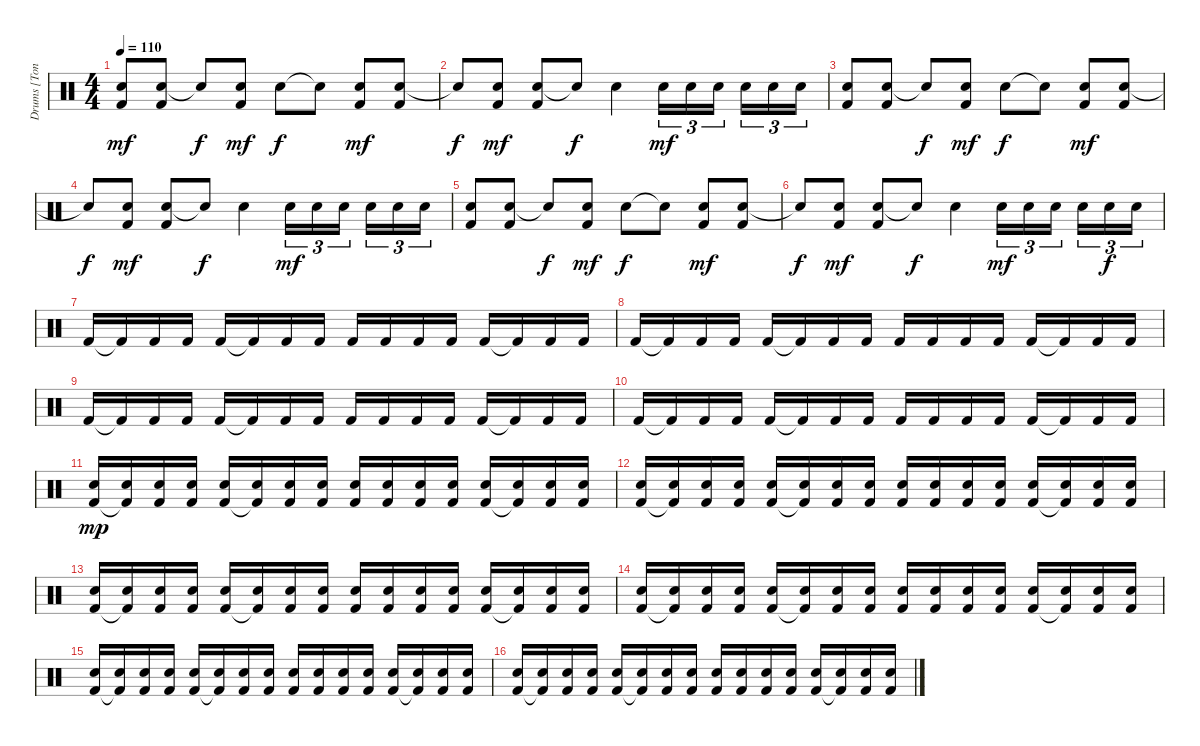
\track ("Drums [Tony Laureano]" "Drums [Ton") {instrument percussion}
\staff {score}
\articulation defaults
\ts (4 4)
\tempo 110
\clef neutral
\ks c
("Electric Snare (hit)" "Kick (hit) 2").8{dy mf} ("Electric Snare (hit)" "Kick (hit) 2").8 "Snare (hit)"{t}.8{dy f} ("Electric Snare (hit)" "Kick (hit) 2").8{dy mf} "Electric Snare (hit)".8{dy f} "Snare (hit)"{t}.8 ("Electric Snare (hit)" "Kick (hit) 2").8{dy mf} ("Electric Snare (hit)" "Kick (hit) 2").8 |
"Snare (hit)"{t}.8{dy f} ("Electric Snare (hit)" "Kick (hit) 2").8{dy mf} ("Electric Snare (hit)" "Kick (hit) 2").8 "Snare (hit)"{t}.8{dy f} "Electric Snare (hit)".4 "Electric Snare (hit)".16{tu (3 2) dy mf} "Electric Snare (hit)".16{tu (3 2)} "Electric Snare (hit)".16{tu (3 2)} "Electric Snare (hit)".16{tu (3 2)} "Electric Snare (hit)".16{tu (3 2)} "Electric Snare (hit)".16{tu (3 2)} |
("Electric Snare (hit)" "Kick (hit) 2").8 ("Electric Snare (hit)" "Kick (hit) 2").8 "Snare (hit)"{t}.8{dy f} ("Electric Snare (hit)" "Kick (hit) 2").8{dy mf} "Electric Snare (hit)".8{dy f} "Snare (hit)"{t}.8 ("Electric Snare (hit)" "Kick (hit) 2").8{dy mf} ("Electric Snare (hit)" "Kick (hit) 2").8 |
"Snare (hit)"{t}.8{dy f} ("Electric Snare (hit)" "Kick (hit) 2").8{dy mf} ("Electric Snare (hit)" "Kick (hit) 2").8 "Snare (hit)"{t}.8{dy f} "Electric Snare (hit)".4 "Electric Snare (hit)".16{tu (3 2) dy mf} "Electric Snare (hit)".16{tu (3 2)} "Electric Snare (hit)".16{tu (3 2)} "Electric Snare (hit)".16{tu (3 2)} "Electric Snare (hit)".16{tu (3 2)} "Electric Snare (hit)".16{tu (3 2)} |
("Electric Snare (hit)" "Kick (hit) 2").8 ("Electric Snare (hit)" "Kick (hit) 2").8 "Snare (hit)"{t}.8{dy f} ("Electric Snare (hit)" "Kick (hit) 2").8{dy mf} "Electric Snare (hit)".8{dy f} "Snare (hit)"{t}.8 ("Electric Snare (hit)" "Kick (hit) 2").8{dy mf} ("Electric Snare (hit)" "Kick (hit) 2").8 |
"Snare (hit)"{t}.8{dy f} ("Electric Snare (hit)" "Kick (hit) 2").8{dy mf} ("Electric Snare (hit)" "Kick (hit) 2").8 "Snare (hit)"{t}.8{dy f} "Electric Snare (hit)".4 "Electric Snare (hit)".16{tu (3 2) dy mf} "Electric Snare (hit)".16{tu (3 2)} "Electric Snare (hit)".16{tu (3 2)} "Electric Snare (hit)".16{tu (3 2)} "Electric Snare (hit)".16{tu (3 2) dy f} "Electric Snare (hit)".16{tu (3 2)} |
"Kick (hit) 2".16 "Kick (hit) 2"{t}.16 "Kick (hit) 2".16 "Kick (hit) 2".16 "Kick (hit) 2".16 "Kick (hit) 2"{t}.16 "Kick (hit) 2".16 "Kick (hit) 2".16 "Kick (hit) 2".16 "Kick (hit) 2".16 "Kick (hit) 2".16 "Kick (hit) 2".16 "Kick (hit) 2".16 "Kick (hit) 2"{t}.16 "Kick (hit) 2".16 "Kick (hit) 2".16 |
"Kick (hit) 2".16 "Kick (hit) 2"{t}.16 "Kick (hit) 2".16 "Kick (hit) 2".16 "Kick (hit) 2".16 "Kick (hit) 2"{t}.16 "Kick (hit) 2".16 "Kick (hit) 2".16 "Kick (hit) 2".16 "Kick (hit) 2".16 "Kick (hit) 2".16 "Kick (hit) 2".16 "Kick (hit) 2".16 "Kick (hit) 2"{t}.16 "Kick (hit) 2".16 "Kick (hit) 2".16 |
"Kick (hit) 2".16 "Kick (hit) 2"{t}.16 "Kick (hit) 2".16 "Kick (hit) 2".16 "Kick (hit) 2".16 "Kick (hit) 2"{t}.16 "Kick (hit) 2".16 "Kick (hit) 2".16 "Kick (hit) 2".16 "Kick (hit) 2".16 "Kick (hit) 2".16 "Kick (hit) 2".16 "Kick (hit) 2".16 "Kick (hit) 2"{t}.16 "Kick (hit) 2".16 "Kick (hit) 2".16 |
"Kick (hit) 2".16 "Kick (hit) 2"{t}.16 "Kick (hit) 2".16 "Kick (hit) 2".16 "Kick (hit) 2".16 "Kick (hit) 2"{t}.16 "Kick (hit) 2".16 "Kick (hit) 2".16 "Kick (hit) 2".16 "Kick (hit) 2".16 "Kick (hit) 2".16 "Kick (hit) 2".16 "Kick (hit) 2".16 "Kick (hit) 2"{t}.16 "Kick (hit) 2".16 "Kick (hit) 2".16 |
("Electric Snare (hit)" "Kick (hit) 2").16{dy mp} ("Electric Snare (hit)" "Kick (hit) 2"{t}).16 ("Electric Snare (hit)" "Kick (hit) 2").16 ("Electric Snare (hit)" "Kick (hit) 2").16 ("Electric Snare (hit)" "Kick (hit) 2").16 ("Electric Snare (hit)" "Kick (hit) 2"{t}).16 ("Electric Snare (hit)" "Kick (hit) 2").16 ("Electric Snare (hit)" "Kick (hit) 2").16 ("Electric Snare (hit)" "Kick (hit) 2").16 ("Electric Snare (hit)" "Kick (hit) 2").16 ("Electric Snare (hit)" "Kick (hit) 2").16 ("Electric Snare (hit)" "Kick (hit) 2").16 ("Electric Snare (hit)" "Kick (hit) 2").16 ("Electric Snare (hit)" "Kick (hit) 2"{t}).16 ("Electric Snare (hit)" "Kick (hit) 2").16 ("Electric Snare (hit)" "Kick (hit) 2").16 |
("Electric Snare (hit)" "Kick (hit) 2").16 ("Electric Snare (hit)" "Kick (hit) 2"{t}).16 ("Electric Snare (hit)" "Kick (hit) 2").16 ("Electric Snare (hit)" "Kick (hit) 2").16 ("Electric Snare (hit)" "Kick (hit) 2").16 ("Electric Snare (hit)" "Kick (hit) 2"{t}).16 ("Electric Snare (hit)" "Kick (hit) 2").16 ("Electric Snare (hit)" "Kick (hit) 2").16 ("Electric Snare (hit)" "Kick (hit) 2").16 ("Electric Snare (hit)" "Kick (hit) 2").16 ("Electric Snare (hit)" "Kick (hit) 2").16 ("Electric Snare (hit)" "Kick (hit) 2").16 ("Electric Snare (hit)" "Kick (hit) 2").16 ("Electric Snare (hit)" "Kick (hit) 2"{t}).16 ("Electric Snare (hit)" "Kick (hit) 2").16 ("Electric Snare (hit)" "Kick (hit) 2").16 |
("Electric Snare (hit)" "Kick (hit) 2").16 ("Electric Snare (hit)" "Kick (hit) 2"{t}).16 ("Electric Snare (hit)" "Kick (hit) 2").16 ("Electric Snare (hit)" "Kick (hit) 2").16 ("Electric Snare (hit)" "Kick (hit) 2").16 ("Electric Snare (hit)" "Kick (hit) 2"{t}).16 ("Electric Snare (hit)" "Kick (hit) 2").16 ("Electric Snare (hit)" "Kick (hit) 2").16 ("Electric Snare (hit)" "Kick (hit) 2").16 ("Electric Snare (hit)" "Kick (hit) 2").16 ("Electric Snare (hit)" "Kick (hit) 2").16 ("Electric Snare (hit)" "Kick (hit) 2").16 ("Electric Snare (hit)" "Kick (hit) 2").16 ("Electric Snare (hit)" "Kick (hit) 2"{t}).16 ("Electric Snare (hit)" "Kick (hit) 2").16 ("Electric Snare (hit)" "Kick (hit) 2").16 |
("Electric Snare (hit)" "Kick (hit) 2").16 ("Electric Snare (hit)" "Kick (hit) 2"{t}).16 ("Electric Snare (hit)" "Kick (hit) 2").16 ("Electric Snare (hit)" "Kick (hit) 2").16 ("Electric Snare (hit)" "Kick (hit) 2").16 ("Electric Snare (hit)" "Kick (hit) 2"{t}).16 ("Electric Snare (hit)" "Kick (hit) 2").16 ("Electric Snare (hit)" "Kick (hit) 2").16 ("Electric Snare (hit)" "Kick (hit) 2").16 ("Electric Snare (hit)" "Kick (hit) 2").16 ("Electric Snare (hit)" "Kick (hit) 2").16 ("Electric Snare (hit)" "Kick (hit) 2").16 ("Electric Snare (hit)" "Kick (hit) 2").16 ("Electric Snare (hit)" "Kick (hit) 2"{t}).16 ("Electric Snare (hit)" "Kick (hit) 2").16 ("Electric Snare (hit)" "Kick (hit) 2").16 |
("Electric Snare (hit)" "Kick (hit) 2").16 ("Electric Snare (hit)" "Kick (hit) 2"{t}).16 ("Electric Snare (hit)" "Kick (hit) 2").16 ("Electric Snare (hit)" "Kick (hit) 2").16 ("Electric Snare (hit)" "Kick (hit) 2").16 ("Electric Snare (hit)" "Kick (hit) 2"{t}).16 ("Electric Snare (hit)" "Kick (hit) 2").16 ("Electric Snare (hit)" "Kick (hit) 2").16 ("Electric Snare (hit)" "Kick (hit) 2").16 ("Electric Snare (hit)" "Kick (hit) 2").16 ("Electric Snare (hit)" "Kick (hit) 2").16 ("Electric Snare (hit)" "Kick (hit) 2").16 ("Electric Snare (hit)" "Kick (hit) 2").16 ("Electric Snare (hit)" "Kick (hit) 2"{t}).16 ("Electric Snare (hit)" "Kick (hit) 2").16 ("Electric Snare (hit)" "Kick (hit) 2").16 |
("Electric Snare (hit)" "Kick (hit) 2").16 ("Electric Snare (hit)" "Kick (hit) 2"{t}).16 ("Electric Snare (hit)" "Kick (hit) 2").16 ("Electric Snare (hit)" "Kick (hit) 2").16 ("Electric Snare (hit)" "Kick (hit) 2").16 ("Electric Snare (hit)" "Kick (hit) 2"{t}).16 ("Electric Snare (hit)" "Kick (hit) 2").16 ("Electric Snare (hit)" "Kick (hit) 2").16 ("Electric Snare (hit)" "Kick (hit) 2").16 ("Electric Snare (hit)" "Kick (hit) 2").16 ("Electric Snare (hit)" "Kick (hit) 2").16 ("Electric Snare (hit)" "Kick (hit) 2").16 ("Electric Snare (hit)" "Kick (hit) 2").16 ("Electric Snare (hit)" "Kick (hit) 2"{t}).16 ("Electric Snare (hit)" "Kick (hit) 2").16 ("Electric Snare (hit)" "Kick (hit) 2").16
